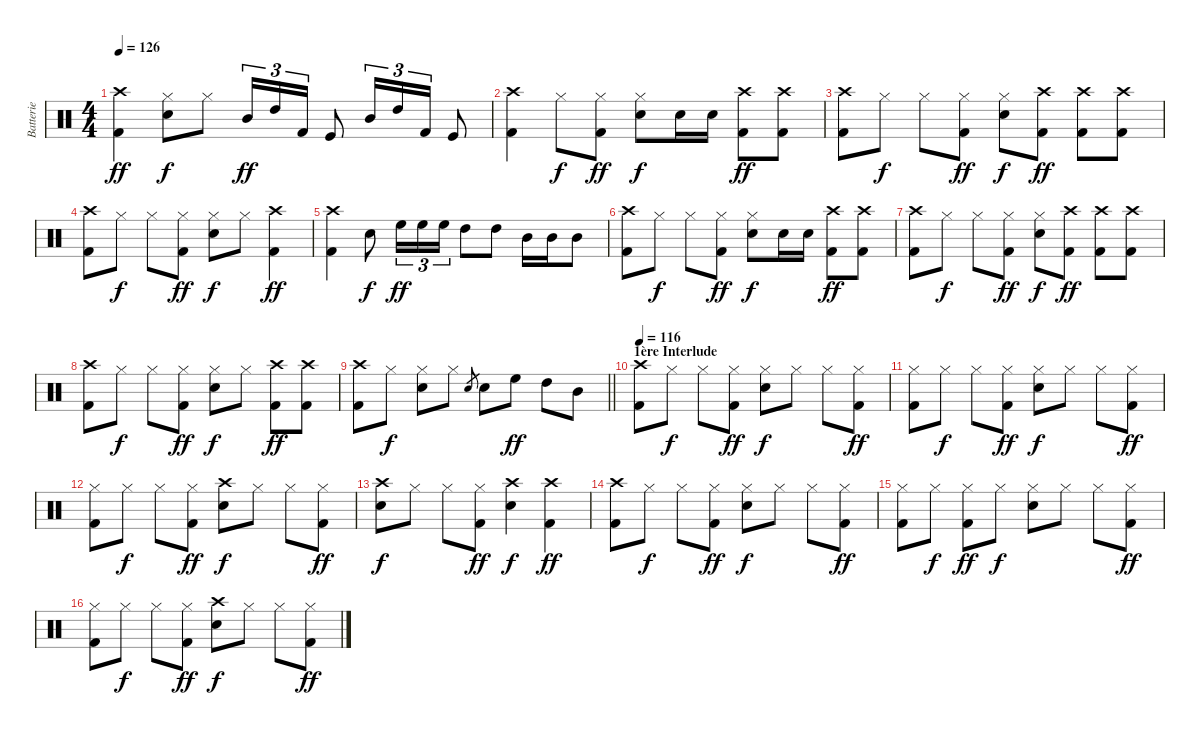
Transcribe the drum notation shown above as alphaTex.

\track ("Batterie" "Batterie") {instrument percussion}
\staff {score}
\articulation defaults
\ts (4 4)
\tempo 126
\clef neutral
\ks c
("Crash high (hit)" "Kick (hit) 2").4{dy ff} ("Hi-Hat (closed)" "Snare (hit) 2").8{dy f} "Hi-Hat (closed)".8 "Mid Tom (hit)".16{tu (3 2) dy ff} "High Tom (hit)".16{tu (3 2)} "Kick (hit) 2".16{tu (3 2)} "Kick (hit)".8 "Mid Tom (hit)".16{tu (3 2)} "High Tom (hit)".16{tu (3 2)} "Kick (hit) 2".16{tu (3 2)} "Kick (hit)".8 |
("Crash high (hit)" "Kick (hit) 2").4 "Hi-Hat (closed)".8{dy f} ("Hi-Hat (closed)" "Kick (hit) 2").8{dy ff} ("Hi-Hat (closed)" "Snare (hit) 2").8{dy f} "Snare (hit) 2".16 "Snare (hit) 2".16 ("Crash high (hit)" "Kick (hit) 2").8{dy ff} ("Crash high (hit)" "Kick (hit) 2").8 |
("Crash high (hit)" "Kick (hit) 2").8 "Hi-Hat (closed)".8{dy f} "Hi-Hat (closed)".8 ("Hi-Hat (closed)" "Kick (hit) 2").8{dy ff} ("Hi-Hat (closed)" "Snare (hit) 2").8{dy f} ("Crash high (hit)" "Kick (hit) 2").8{dy ff} ("Crash high (hit)" "Kick (hit) 2").8 ("Crash high (hit)" "Kick (hit) 2").8 |
("Crash high (hit)" "Kick (hit) 2").8 "Hi-Hat (closed)".8{dy f} "Hi-Hat (closed)".8 ("Hi-Hat (closed)" "Kick (hit) 2").8{dy ff} ("Hi-Hat (closed)" "Snare (hit) 2").8{dy f} "Hi-Hat (closed)".8 ("Crash high (hit)" "Kick (hit) 2").4{dy ff} |
("Crash high (hit)" "Kick (hit) 2").4 "Snare (hit) 2".8{dy f} "High Floor Tom (hit)".16{tu (3 2) dy ff} "High Floor Tom (hit)".16{tu (3 2)} "High Floor Tom (hit)".16{tu (3 2)} "High Tom (hit)".8 "High Tom (hit)".8 "Mid Tom (hit)".16 "Mid Tom (hit)".16 "Mid Tom (hit)".8 |
("Crash high (hit)" "Kick (hit) 2").8 "Hi-Hat (closed)".8{dy f} "Hi-Hat (closed)".8 ("Hi-Hat (closed)" "Kick (hit) 2").8{dy ff} ("Hi-Hat (closed)" "Snare (hit) 2").8{dy f} "Snare (hit) 2".16 "Snare (hit) 2".16 ("Crash high (hit)" "Kick (hit) 2").8{dy ff} ("Crash high (hit)" "Kick (hit) 2").8 |
("Crash high (hit)" "Kick (hit) 2").8 "Hi-Hat (closed)".8{dy f} "Hi-Hat (closed)".8 ("Hi-Hat (closed)" "Kick (hit) 2").8{dy ff} ("Hi-Hat (closed)" "Snare (hit) 2").8{dy f} ("Crash high (hit)" "Kick (hit) 2").8{dy ff} ("Crash high (hit)" "Kick (hit) 2").8 ("Crash high (hit)" "Kick (hit) 2").8 |
("Crash high (hit)" "Kick (hit) 2").8 "Hi-Hat (closed)".8{dy f} "Hi-Hat (closed)".8 ("Hi-Hat (closed)" "Kick (hit) 2").8{dy ff} ("Hi-Hat (closed)" "Snare (hit) 2").8{dy f} "Hi-Hat (closed)".8 ("Crash high (hit)" "Kick (hit) 2").8{dy ff} ("Crash high (hit)" "Kick (hit) 2").8 |
\barLineRight lightlight
("Crash high (hit)" "Kick (hit) 2").8 "Hi-Hat (closed)".8{dy f} ("Hi-Hat (closed)" "Snare (hit) 2").8 "Hi-Hat (closed)".8 "Snare (hit) 2".8{gr} "Snare (hit) 2".8 "High Floor Tom (hit)".8{dy ff} "High Tom (hit)".8 "Mid Tom (hit)".8 |
\section ("" "1ère Interlude")
\tempo 116
("Crash high (hit)" "Kick (hit) 2").8 "Hi-Hat (closed)".8{dy f} "Hi-Hat (closed)".8 ("Hi-Hat (closed)" "Kick (hit) 2").8{dy ff} ("Hi-Hat (closed)" "Snare (hit) 2").8{dy f} "Hi-Hat (closed)".8 "Hi-Hat (closed)".8 ("Hi-Hat (closed)" "Kick (hit) 2").8{dy ff} |
("Hi-Hat (closed)" "Kick (hit) 2").8 "Hi-Hat (closed)".8{dy f} "Hi-Hat (closed)".8 ("Hi-Hat (closed)" "Kick (hit) 2").8{dy ff} ("Hi-Hat (closed)" "Snare (hit) 2").8{dy f} "Hi-Hat (closed)".8 "Hi-Hat (closed)".8 ("Hi-Hat (closed)" "Kick (hit) 2").8{dy ff} |
("Hi-Hat (closed)" "Kick (hit) 2").8 "Hi-Hat (closed)".8{dy f} "Hi-Hat (closed)".8 ("Hi-Hat (closed)" "Kick (hit) 2").8{dy ff} ("Crash high (hit)" "Snare (hit) 2").8{dy f} "Hi-Hat (closed)".8 "Hi-Hat (closed)".8 ("Hi-Hat (closed)" "Kick (hit) 2").8{dy ff} |
("Crash high (hit)" "Snare (hit) 2").8{dy f} "Hi-Hat (closed)".8 "Hi-Hat (closed)".8 ("Hi-Hat (closed)" "Kick (hit) 2").8{dy ff} ("Crash high (hit)" "Snare (hit) 2").4{dy f} ("Crash high (hit)" "Kick (hit) 2").4{dy ff} |
("Crash high (hit)" "Kick (hit) 2").8 "Hi-Hat (closed)".8{dy f} "Hi-Hat (closed)".8 ("Hi-Hat (closed)" "Kick (hit) 2").8{dy ff} ("Hi-Hat (closed)" "Snare (hit) 2").8{dy f} "Hi-Hat (closed)".8 "Hi-Hat (closed)".8 ("Hi-Hat (closed)" "Kick (hit) 2").8{dy ff} |
("Hi-Hat (closed)" "Kick (hit) 2").8 "Hi-Hat (closed)".8{dy f} ("Hi-Hat (closed)" "Kick (hit) 2").8{dy ff} "Hi-Hat (closed)".8{dy f} ("Hi-Hat (closed)" "Snare (hit) 2").8 "Hi-Hat (closed)".8 "Hi-Hat (closed)".8 ("Hi-Hat (closed)" "Kick (hit) 2").8{dy ff} |
("Hi-Hat (closed)" "Kick (hit) 2").8 "Hi-Hat (closed)".8{dy f} "Hi-Hat (closed)".8 ("Hi-Hat (closed)" "Kick (hit) 2").8{dy ff} ("Crash high (hit)" "Snare (hit) 2").8{dy f} "Hi-Hat (closed)".8 "Hi-Hat (closed)".8 ("Hi-Hat (closed)" "Kick (hit) 2").8{dy ff}
